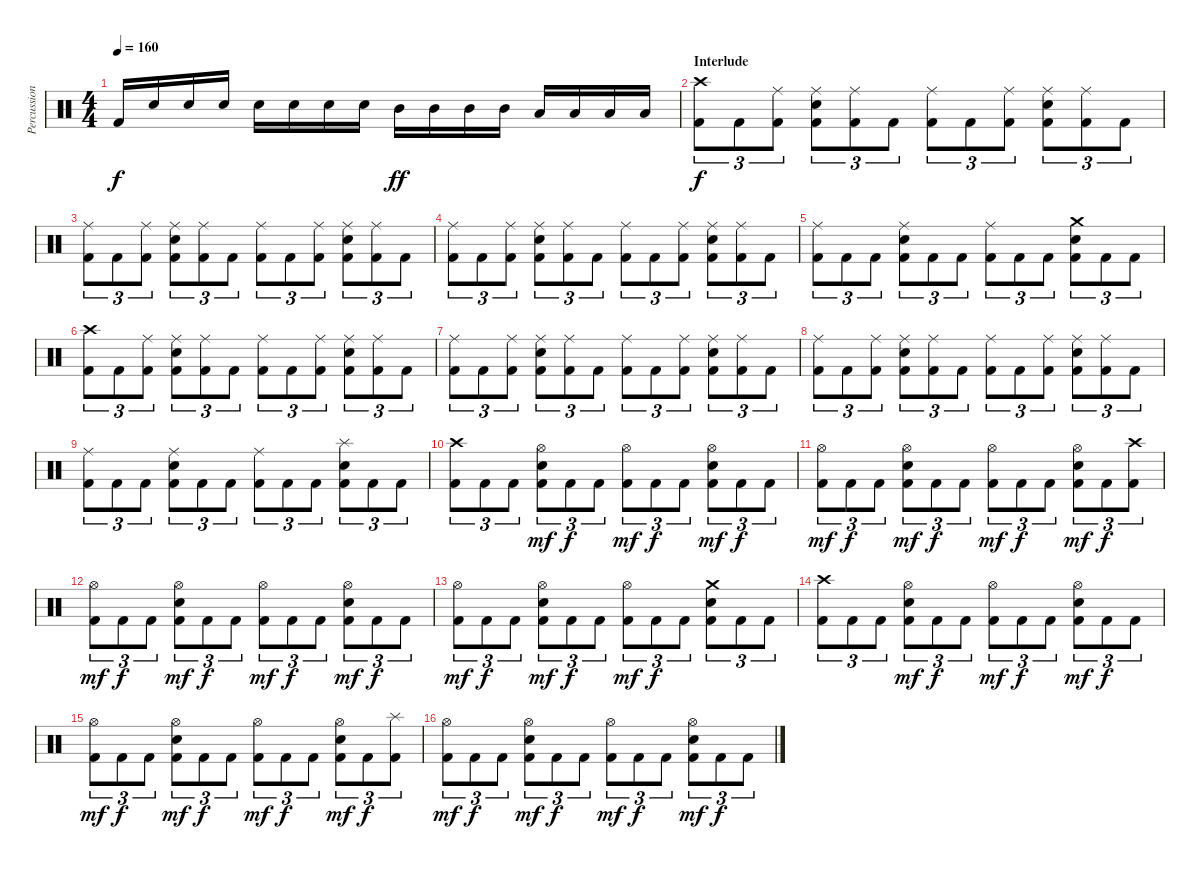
\track ("Percussion" "Percussion") {instrument percussion}
\staff {score}
\articulation defaults
\ts (4 4)
\tempo 160
\clef neutral
\ks c "Kick (hit) 2".16{dy f} "Electric Snare (hit)".16 "Electric Snare (hit)".16 "Electric Snare (hit)".16 "Electric Snare (hit)".16 "Electric Snare (hit)".16 "Electric Snare (hit)".16 "Electric Snare (hit)".16 "Mid Tom (hit)".16{dy ff} "Mid Tom (hit)".16 "Mid Tom (hit)".16 "Mid Tom (hit)".16 "Low Tom (hit)".16 "Low Tom (hit)".16 "Low Tom (hit)".16 "Low Tom (hit)".16
|
\section ("" "Interlude")
("Crash high (hit)" "Kick (hit) 2").8{tu (3 2) dy f} "Kick (hit) 2".8{tu (3 2)} ("Ride (middle)" "Kick (hit) 2").8{tu (3 2)} ("Ride (middle)" "Electric Snare (hit)" "Kick (hit) 2").8{tu (3 2)} ("Ride (middle)" "Kick (hit) 2").8{tu (3 2)} "Kick (hit) 2".8{tu (3 2)} ("Ride (middle)" "Kick (hit) 2").8{tu (3 2)} "Kick (hit) 2".8{tu (3 2)} ("Ride (middle)" "Kick (hit) 2").8{tu (3 2)} ("Ride (middle)" "Electric Snare (hit)" "Kick (hit) 2").8{tu (3 2)} ("Ride (middle)" "Kick (hit) 2").8{tu (3 2)} "Kick (hit) 2".8{tu (3 2)} |
("Ride (middle)" "Kick (hit) 2").8{tu (3 2)} "Kick (hit) 2".8{tu (3 2)} ("Ride (middle)" "Kick (hit) 2").8{tu (3 2)} ("Ride (middle)" "Electric Snare (hit)" "Kick (hit) 2").8{tu (3 2)} ("Ride (middle)" "Kick (hit) 2").8{tu (3 2)} "Kick (hit) 2".8{tu (3 2)} ("Ride (middle)" "Kick (hit) 2").8{tu (3 2)} "Kick (hit) 2".8{tu (3 2)} ("Ride (middle)" "Kick (hit) 2").8{tu (3 2)} ("Ride (middle)" "Electric Snare (hit)" "Kick (hit) 2").8{tu (3 2)} ("Ride (middle)" "Kick (hit) 2").8{tu (3 2)} "Kick (hit) 2".8{tu (3 2)} |
("Ride (middle)" "Kick (hit) 2").8{tu (3 2)} "Kick (hit) 2".8{tu (3 2)} ("Ride (middle)" "Kick (hit) 2").8{tu (3 2)} ("Ride (middle)" "Electric Snare (hit)" "Kick (hit) 2").8{tu (3 2)} ("Ride (middle)" "Kick (hit) 2").8{tu (3 2)} "Kick (hit) 2".8{tu (3 2)} ("Ride (middle)" "Kick (hit) 2").8{tu (3 2)} "Kick (hit) 2".8{tu (3 2)} ("Ride (middle)" "Kick (hit) 2").8{tu (3 2)} ("Ride (middle)" "Electric Snare (hit)" "Kick (hit) 2").8{tu (3 2)} ("Ride (middle)" "Kick (hit) 2").8{tu (3 2)} "Kick (hit) 2".8{tu (3 2)} |
("Ride (middle)" "Kick (hit) 2").8{tu (3 2)} "Kick (hit) 2".8{tu (3 2)} "Kick (hit) 2".8{tu (3 2)} ("Ride (middle)" "Electric Snare (hit)" "Kick (hit) 2").8{tu (3 2)} "Kick (hit) 2".8{tu (3 2)} "Kick (hit) 2".8{tu (3 2)} ("Ride (middle)" "Kick (hit) 2").8{tu (3 2)} "Kick (hit) 2".8{tu (3 2)} "Kick (hit) 2".8{tu (3 2)} ("Crash medium (hit)" "Electric Snare (hit)" "Kick (hit) 2").8{tu (3 2)} "Kick (hit) 2".8{tu (3 2)} "Kick (hit) 2".8{tu (3 2)} |
("Crash high (hit)" "Kick (hit) 2").8{tu (3 2)} "Kick (hit) 2".8{tu (3 2)} ("Ride (middle)" "Kick (hit) 2").8{tu (3 2)} ("Ride (middle)" "Electric Snare (hit)" "Kick (hit) 2").8{tu (3 2)} ("Ride (middle)" "Kick (hit) 2").8{tu (3 2)} "Kick (hit) 2".8{tu (3 2)} ("Ride (middle)" "Kick (hit) 2").8{tu (3 2)} "Kick (hit) 2".8{tu (3 2)} ("Ride (middle)" "Kick (hit) 2").8{tu (3 2)} ("Ride (middle)" "Electric Snare (hit)" "Kick (hit) 2").8{tu (3 2)} ("Ride (middle)" "Kick (hit) 2").8{tu (3 2)} "Kick (hit) 2".8{tu (3 2)} |
("Ride (middle)" "Kick (hit) 2").8{tu (3 2)} "Kick (hit) 2".8{tu (3 2)} ("Ride (middle)" "Kick (hit) 2").8{tu (3 2)} ("Ride (middle)" "Electric Snare (hit)" "Kick (hit) 2").8{tu (3 2)} ("Ride (middle)" "Kick (hit) 2").8{tu (3 2)} "Kick (hit) 2".8{tu (3 2)} ("Ride (middle)" "Kick (hit) 2").8{tu (3 2)} "Kick (hit) 2".8{tu (3 2)} ("Ride (middle)" "Kick (hit) 2").8{tu (3 2)} ("Ride (middle)" "Electric Snare (hit)" "Kick (hit) 2").8{tu (3 2)} ("Ride (middle)" "Kick (hit) 2").8{tu (3 2)} "Kick (hit) 2".8{tu (3 2)} |
("Ride (middle)" "Kick (hit) 2").8{tu (3 2)} "Kick (hit) 2".8{tu (3 2)} ("Ride (middle)" "Kick (hit) 2").8{tu (3 2)} ("Ride (middle)" "Electric Snare (hit)" "Kick (hit) 2").8{tu (3 2)} ("Ride (middle)" "Kick (hit) 2").8{tu (3 2)} "Kick (hit) 2".8{tu (3 2)} ("Ride (middle)" "Kick (hit) 2").8{tu (3 2)} "Kick (hit) 2".8{tu (3 2)} ("Ride (middle)" "Kick (hit) 2").8{tu (3 2)} ("Ride (middle)" "Electric Snare (hit)" "Kick (hit) 2").8{tu (3 2)} ("Ride (middle)" "Kick (hit) 2").8{tu (3 2)} "Kick (hit) 2".8{tu (3 2)} |
("Ride (middle)" "Kick (hit) 2").8{tu (3 2)} "Kick (hit) 2".8{tu (3 2)} "Kick (hit) 2".8{tu (3 2)} ("Ride (middle)" "Electric Snare (hit)" "Kick (hit) 2").8{tu (3 2)} "Kick (hit) 2".8{tu (3 2)} "Kick (hit) 2".8{tu (3 2)} ("Ride (middle)" "Kick (hit) 2").8{tu (3 2)} "Kick (hit) 2".8{tu (3 2)} "Kick (hit) 2".8{tu (3 2)} ("Splash (hit)" "Electric Snare (hit)" "Kick (hit) 2").8{tu (3 2)} "Kick (hit) 2".8{tu (3 2)} "Kick (hit) 2".8{tu (3 2)} |
("Crash high (hit)" "Kick (hit) 2").8{tu (3 2)} "Kick (hit) 2".8{tu (3 2)} "Kick (hit) 2".8{tu (3 2)} ("Hi-Hat (open)" "Electric Snare (hit)" "Kick (hit) 2").8{tu (3 2) dy mf} "Kick (hit) 2".8{tu (3 2) dy f} "Kick (hit) 2".8{tu (3 2)} ("Hi-Hat (open)" "Kick (hit) 2").8{tu (3 2) dy mf} "Kick (hit) 2".8{tu (3 2) dy f} "Kick (hit) 2".8{tu (3 2)} ("Hi-Hat (open)" "Electric Snare (hit)" "Kick (hit) 2").8{tu (3 2) dy mf} "Kick (hit) 2".8{tu (3 2) dy f} "Kick (hit) 2".8{tu (3 2)} |
("Hi-Hat (open)" "Kick (hit) 2").8{tu (3 2) dy mf} "Kick (hit) 2".8{tu (3 2) dy f} "Kick (hit) 2".8{tu (3 2)} ("Hi-Hat (open)" "Electric Snare (hit)" "Kick (hit) 2").8{tu (3 2) dy mf} "Kick (hit) 2".8{tu (3 2) dy f} "Kick (hit) 2".8{tu (3 2)} ("Hi-Hat (open)" "Kick (hit) 2").8{tu (3 2) dy mf} "Kick (hit) 2".8{tu (3 2) dy f} "Kick (hit) 2".8{tu (3 2)} ("Hi-Hat (open)" "Electric Snare (hit)" "Kick (hit) 2").8{tu (3 2) dy mf} "Kick (hit) 2".8{tu (3 2) dy f} ("Crash high (hit)" "Kick (hit) 2").8{tu (3 2)} |
("Hi-Hat (open)" "Kick (hit) 2").8{tu (3 2) dy mf} "Kick (hit) 2".8{tu (3 2) dy f} "Kick (hit) 2".8{tu (3 2)} ("Hi-Hat (open)" "Electric Snare (hit)" "Kick (hit) 2").8{tu (3 2) dy mf} "Kick (hit) 2".8{tu (3 2) dy f} "Kick (hit) 2".8{tu (3 2)} ("Hi-Hat (open)" "Kick (hit) 2").8{tu (3 2) dy mf} "Kick (hit) 2".8{tu (3 2) dy f} "Kick (hit) 2".8{tu (3 2)} ("Hi-Hat (open)" "Electric Snare (hit)" "Kick (hit) 2").8{tu (3 2) dy mf} "Kick (hit) 2".8{tu (3 2) dy f} "Kick (hit) 2".8{tu (3 2)} |
("Hi-Hat (open)" "Kick (hit) 2").8{tu (3 2) dy mf} "Kick (hit) 2".8{tu (3 2) dy f} "Kick (hit) 2".8{tu (3 2)} ("Hi-Hat (open)" "Electric Snare (hit)" "Kick (hit) 2").8{tu (3 2) dy mf} "Kick (hit) 2".8{tu (3 2) dy f} "Kick (hit) 2".8{tu (3 2)} ("Hi-Hat (open)" "Kick (hit) 2").8{tu (3 2) dy mf} "Kick (hit) 2".8{tu (3 2) dy f} "Kick (hit) 2".8{tu (3 2)} ("Crash medium (hit)" "Electric Snare (hit)" "Kick (hit) 2").8{tu (3 2)} "Kick (hit) 2".8{tu (3 2)} "Kick (hit) 2".8{tu (3 2)} |
("Crash high (hit)" "Kick (hit) 2").8{tu (3 2)} "Kick (hit) 2".8{tu (3 2)} "Kick (hit) 2".8{tu (3 2)} ("Hi-Hat (open)" "Electric Snare (hit)" "Kick (hit) 2").8{tu (3 2) dy mf} "Kick (hit) 2".8{tu (3 2) dy f} "Kick (hit) 2".8{tu (3 2)} ("Hi-Hat (open)" "Kick (hit) 2").8{tu (3 2) dy mf} "Kick (hit) 2".8{tu (3 2) dy f} "Kick (hit) 2".8{tu (3 2)} ("Hi-Hat (open)" "Electric Snare (hit)" "Kick (hit) 2").8{tu (3 2) dy mf} "Kick (hit) 2".8{tu (3 2) dy f} "Kick (hit) 2".8{tu (3 2)} |
("Hi-Hat (open)" "Kick (hit) 2").8{tu (3 2) dy mf} "Kick (hit) 2".8{tu (3 2) dy f} "Kick (hit) 2".8{tu (3 2)} ("Hi-Hat (open)" "Electric Snare (hit)" "Kick (hit) 2").8{tu (3 2) dy mf} "Kick (hit) 2".8{tu (3 2) dy f} "Kick (hit) 2".8{tu (3 2)} ("Hi-Hat (open)" "Kick (hit) 2").8{tu (3 2) dy mf} "Kick (hit) 2".8{tu (3 2) dy f} "Kick (hit) 2".8{tu (3 2)} ("Hi-Hat (open)" "Electric Snare (hit)" "Kick (hit) 2").8{tu (3 2) dy mf} "Kick (hit) 2".8{tu (3 2) dy f} ("Splash (hit)" "Kick (hit) 2").8{tu (3 2)} |
("Hi-Hat (open)" "Kick (hit) 2").8{tu (3 2) dy mf} "Kick (hit) 2".8{tu (3 2) dy f} "Kick (hit) 2".8{tu (3 2)} ("Hi-Hat (open)" "Electric Snare (hit)" "Kick (hit) 2").8{tu (3 2) dy mf} "Kick (hit) 2".8{tu (3 2) dy f} "Kick (hit) 2".8{tu (3 2)} ("Hi-Hat (open)" "Kick (hit) 2").8{tu (3 2) dy mf} "Kick (hit) 2".8{tu (3 2) dy f} "Kick (hit) 2".8{tu (3 2)} ("Hi-Hat (open)" "Electric Snare (hit)" "Kick (hit) 2").8{tu (3 2) dy mf} "Kick (hit) 2".8{tu (3 2) dy f} "Kick (hit) 2".8{tu (3 2)}
